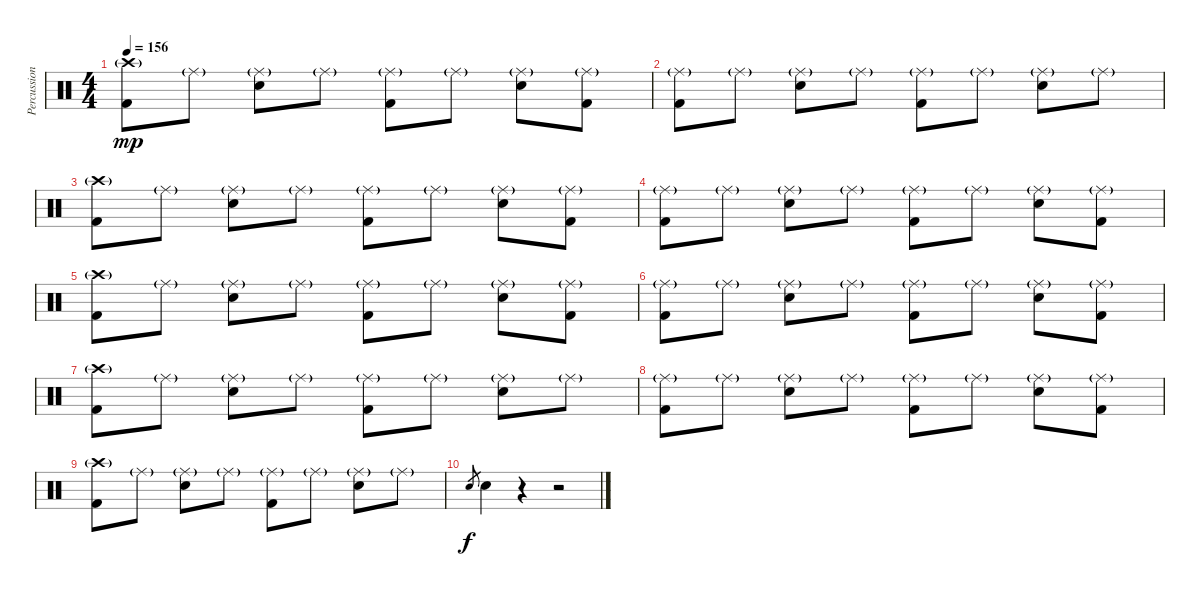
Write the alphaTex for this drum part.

\track ("Percussion" "Percussion") {instrument percussion}
\staff {score}
\articulation defaults
\ts (4 4)
\tempo 156
\clef neutral
\ks c
("Crash high (hit)"{g} "Kick (hit) 2").8{dy mp} "Ride (middle)"{g}.8 ("Ride (middle)"{g} "Electric Snare (hit)").8 "Ride (middle)"{g}.8 ("Ride (middle)"{g} "Kick (hit) 2").8 "Ride (middle)"{g}.8 ("Ride (middle)"{g} "Electric Snare (hit)").8 ("Ride (middle)"{g} "Kick (hit) 2").8 |
("Ride (middle)"{g} "Kick (hit) 2").8 "Ride (middle)"{g}.8 ("Ride (middle)"{g} "Electric Snare (hit)").8 "Ride (middle)"{g}.8 ("Ride (middle)"{g} "Kick (hit) 2").8 "Ride (middle)"{g}.8 ("Ride (middle)"{g} "Electric Snare (hit)").8 "Ride (middle)"{g}.8 |
("Crash high (hit)"{g} "Kick (hit) 2").8 "Ride (middle)"{g}.8 ("Ride (middle)"{g} "Electric Snare (hit)").8 "Ride (middle)"{g}.8 ("Ride (middle)"{g} "Kick (hit) 2").8 "Ride (middle)"{g}.8 ("Ride (middle)"{g} "Electric Snare (hit)").8 ("Ride (middle)"{g} "Kick (hit) 2").8 |
("Ride (middle)"{g} "Kick (hit) 2").8 "Ride (middle)"{g}.8 ("Ride (middle)"{g} "Electric Snare (hit)").8 "Ride (middle)"{g}.8 ("Ride (middle)"{g} "Kick (hit) 2").8 "Ride (middle)"{g}.8 ("Ride (middle)"{g} "Electric Snare (hit)").8 ("Ride (middle)"{g} "Kick (hit) 2").8 |
("Crash high (hit)"{g} "Kick (hit) 2").8 "Ride (middle)"{g}.8 ("Ride (middle)"{g} "Electric Snare (hit)").8 "Ride (middle)"{g}.8 ("Ride (middle)"{g} "Kick (hit) 2").8 "Ride (middle)"{g}.8 ("Ride (middle)"{g} "Electric Snare (hit)").8 ("Ride (middle)"{g} "Kick (hit) 2").8 |
("Ride (middle)"{g} "Kick (hit) 2").8 "Ride (middle)"{g}.8 ("Ride (middle)"{g} "Electric Snare (hit)").8 "Ride (middle)"{g}.8 ("Ride (middle)"{g} "Kick (hit) 2").8 "Ride (middle)"{g}.8 ("Ride (middle)"{g} "Electric Snare (hit)").8 ("Ride (middle)"{g} "Kick (hit) 2").8 |
("Crash high (hit)"{g} "Kick (hit) 2").8 "Ride (middle)"{g}.8 ("Ride (middle)"{g} "Electric Snare (hit)").8 "Ride (middle)"{g}.8 ("Ride (middle)"{g} "Kick (hit) 2").8 "Ride (middle)"{g}.8 ("Ride (middle)"{g} "Electric Snare (hit)").8 "Ride (middle)"{g}.8 |
("Ride (middle)"{g} "Kick (hit) 2").8 "Ride (middle)"{g}.8 ("Ride (middle)"{g} "Electric Snare (hit)").8 "Ride (middle)"{g}.8 ("Ride (middle)"{g} "Kick (hit) 2").8 "Ride (middle)"{g}.8 ("Ride (middle)"{g} "Electric Snare (hit)").8 ("Ride (middle)"{g} "Kick (hit) 2").8 |
("Crash high (hit)"{g} "Kick (hit) 2").8 "Ride (middle)"{g}.8 ("Ride (middle)"{g} "Electric Snare (hit)").8 "Ride (middle)"{g}.8 ("Ride (middle)"{g} "Kick (hit) 2").8 "Ride (middle)"{g}.8 ("Ride (middle)"{g} "Electric Snare (hit)").8 "Ride (middle)"{g}.8 |
"Electric Snare (hit)".8{gr dy f} "Electric Snare (hit)".4 r.4 r.2
